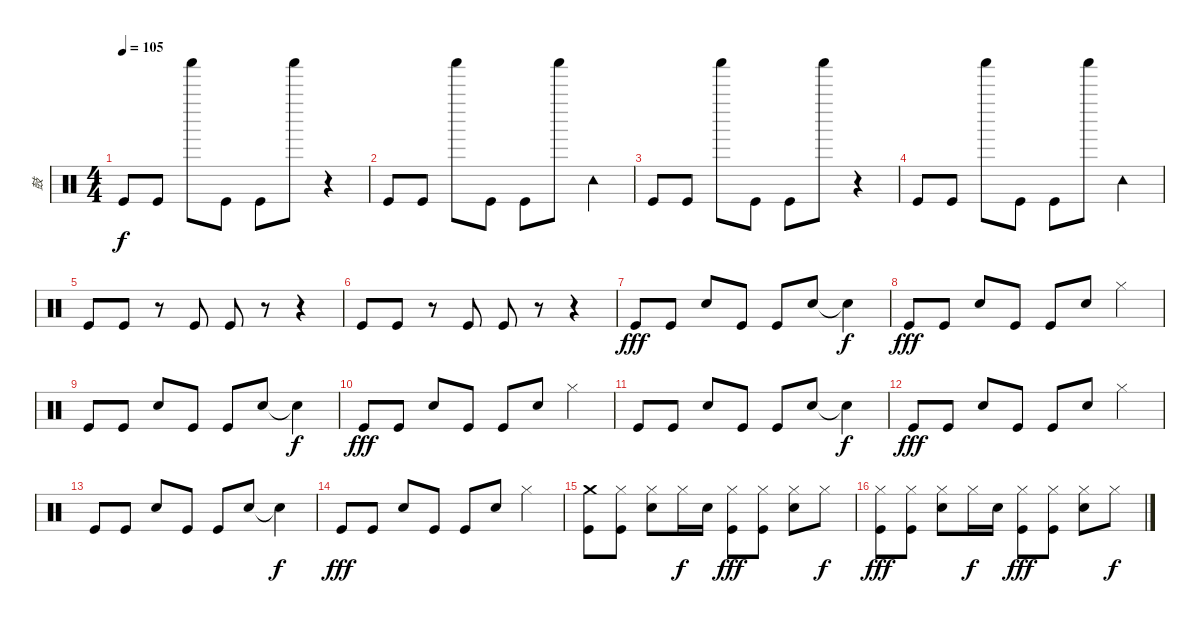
\track ("鼓" "鼓") {instrument percussion}
\staff {score}
\articulation defaults
\ts (4 4)
\tempo 105
\clef neutral
\ks c "Kick (hit)".8{dy f} "Kick (hit)".8 "Shaker (hit)".8 "Kick (hit)".8 "Kick (hit)".8 "Shaker (hit)".8
r.4 |
"Kick (hit)".8 "Kick (hit)".8 "Shaker (hit)".8 "Kick (hit)".8 "Kick (hit)".8 "Shaker (hit)".8 "Tambourine (hit)".4 |
"Kick (hit)".8 "Kick (hit)".8 "Shaker (hit)".8 "Kick (hit)".8 "Kick (hit)".8 "Shaker (hit)".8 r.4 |
"Kick (hit)".8 "Kick (hit)".8 "Shaker (hit)".8 "Kick (hit)".8 "Kick (hit)".8 "Shaker (hit)".8 "Tambourine (hit)".4 |
"Kick (hit)".8 "Kick (hit)".8 r.8 "Kick (hit)".8 "Kick (hit)".8 r.8 r.4 |
"Kick (hit)".8 "Kick (hit)".8 r.8 "Kick (hit)".8 "Kick (hit)".8 r.8 r.4 |
"Kick (hit)".8{dy fff volume 16} "Kick (hit)".8 "Electric Snare (hit)".8 "Kick (hit)".8 "Kick (hit)".8 "Electric Snare (hit)".8 "Snare (hit)"{t}.4{dy f} |
"Kick (hit)".8{dy fff} "Kick (hit)".8 "Electric Snare (hit)".8 "Kick (hit)".8 "Kick (hit)".8 "Electric Snare (hit)".8 "Hi-Hat (closed)".4 |
"Kick (hit)".8 "Kick (hit)".8 "Electric Snare (hit)".8 "Kick (hit)".8 "Kick (hit)".8 "Electric Snare (hit)".8 "Snare (hit)"{t}.4{dy f} |
"Kick (hit)".8{dy fff} "Kick (hit)".8 "Electric Snare (hit)".8 "Kick (hit)".8 "Kick (hit)".8 "Electric Snare (hit)".8 "Hi-Hat (closed)".4 |
"Kick (hit)".8 "Kick (hit)".8 "Electric Snare (hit)".8 "Kick (hit)".8 "Kick (hit)".8 "Electric Snare (hit)".8 "Snare (hit)"{t}.4{dy f} |
"Kick (hit)".8{dy fff} "Kick (hit)".8 "Electric Snare (hit)".8 "Kick (hit)".8 "Kick (hit)".8 "Electric Snare (hit)".8 "Hi-Hat (closed)".4 |
"Kick (hit)".8 "Kick (hit)".8 "Electric Snare (hit)".8 "Kick (hit)".8 "Kick (hit)".8 "Electric Snare (hit)".8 "Snare (hit)"{t}.4{dy f} |
"Kick (hit)".8{dy fff} "Kick (hit)".8 "Electric Snare (hit)".8 "Kick (hit)".8 "Kick (hit)".8 "Electric Snare (hit)".8 "Hi-Hat (closed)".4 |
("Crash medium (hit)" "Kick (hit)").8 ("Hi-Hat (closed)" "Kick (hit)").8 ("Hi-Hat (closed)" "Electric Snare (hit)").8 "Hi-Hat (closed)".16{dy f} "Electric Snare (hit)".16 ("Hi-Hat (closed)" "Kick (hit)").8{dy fff} ("Hi-Hat (closed)" "Kick (hit)").8 ("Hi-Hat (closed)" "Electric Snare (hit)").8 "Hi-Hat (closed)".8{dy f} |
("Hi-Hat (closed)" "Kick (hit)").8{dy fff} ("Hi-Hat (closed)" "Kick (hit)").8 ("Hi-Hat (closed)" "Electric Snare (hit)").8 "Hi-Hat (closed)".16{dy f} "Electric Snare (hit)".16 ("Hi-Hat (closed)" "Kick (hit)").8{dy fff} ("Hi-Hat (closed)" "Kick (hit)").8 ("Hi-Hat (closed)" "Electric Snare (hit)").8 "Hi-Hat (closed)".8{dy f}
